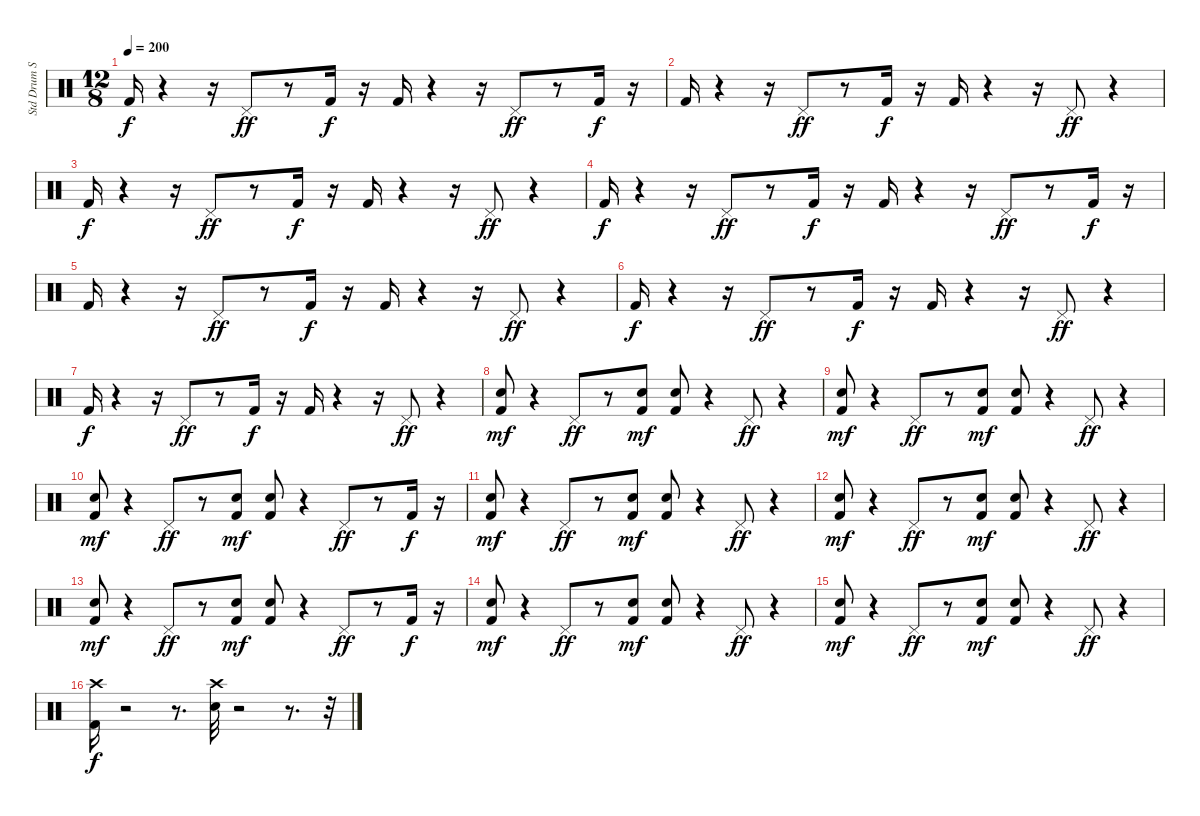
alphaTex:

\track ("Std Drum Set" "Std Drum S") {instrument percussion}
\staff {score}
\articulation defaults
\ts (12 8)
\tempo 200
\clef neutral
\ks c "Kick (hit) 2".16{dy f}
r.4 r.16 "Pedal Hi-Hat (hit)".8{dy ff} r.8 "Kick (hit) 2".16{dy f} r.16 "Kick (hit) 2".16 r.4 r.16 "Pedal Hi-Hat (hit)".8{dy ff} r.8 "Kick (hit) 2".16{dy f} r.16 |
"Kick (hit) 2".16 r.4 r.16 "Pedal Hi-Hat (hit)".8{dy ff} r.8 "Kick (hit) 2".16{dy f} r.16 "Kick (hit) 2".16 r.4 r.16 "Pedal Hi-Hat (hit)".8{dy ff} r.4 |
"Kick (hit) 2".16{dy f} r.4 r.16 "Pedal Hi-Hat (hit)".8{dy ff} r.8 "Kick (hit) 2".16{dy f} r.16 "Kick (hit) 2".16 r.4 r.16 "Pedal Hi-Hat (hit)".8{dy ff} r.4 |
"Kick (hit) 2".16{dy f} r.4 r.16 "Pedal Hi-Hat (hit)".8{dy ff} r.8 "Kick (hit) 2".16{dy f} r.16 "Kick (hit) 2".16 r.4 r.16 "Pedal Hi-Hat (hit)".8{dy ff} r.8 "Kick (hit) 2".16{dy f} r.16 |
"Kick (hit) 2".16 r.4 r.16 "Pedal Hi-Hat (hit)".8{dy ff} r.8 "Kick (hit) 2".16{dy f} r.16 "Kick (hit) 2".16 r.4 r.16 "Pedal Hi-Hat (hit)".8{dy ff} r.4 |
"Kick (hit) 2".16{dy f} r.4 r.16 "Pedal Hi-Hat (hit)".8{dy ff} r.8 "Kick (hit) 2".16{dy f} r.16 "Kick (hit) 2".16 r.4 r.16 "Pedal Hi-Hat (hit)".8{dy ff} r.4 |
"Kick (hit) 2".16{dy f} r.4 r.16 "Pedal Hi-Hat (hit)".8{dy ff} r.8 "Kick (hit) 2".16{dy f} r.16 "Kick (hit) 2".16 r.4 r.16 "Pedal Hi-Hat (hit)".8{dy ff} r.4 |
("Kick (hit) 2" "Hand Clap (hit)").8{dy mf} r.4 "Pedal Hi-Hat (hit)".8{dy ff} r.8 ("Kick (hit) 2" "Hand Clap (hit)").8{dy mf} ("Kick (hit) 2" "Hand Clap (hit)").8 r.4 "Pedal Hi-Hat (hit)".8{dy ff} r.4 |
("Kick (hit) 2" "Hand Clap (hit)").8{dy mf} r.4 "Pedal Hi-Hat (hit)".8{dy ff} r.8 ("Kick (hit) 2" "Hand Clap (hit)").8{dy mf} ("Kick (hit) 2" "Hand Clap (hit)").8 r.4 "Pedal Hi-Hat (hit)".8{dy ff} r.4 |
("Kick (hit) 2" "Hand Clap (hit)").8{dy mf} r.4 "Pedal Hi-Hat (hit)".8{dy ff} r.8 ("Kick (hit) 2" "Hand Clap (hit)").8{dy mf} ("Kick (hit) 2" "Hand Clap (hit)").8 r.4 "Pedal Hi-Hat (hit)".8{dy ff} r.8 "Kick (hit) 2".16{dy f} r.16 |
("Kick (hit) 2" "Hand Clap (hit)").8{dy mf} r.4 "Pedal Hi-Hat (hit)".8{dy ff} r.8 ("Kick (hit) 2" "Hand Clap (hit)").8{dy mf} ("Kick (hit) 2" "Hand Clap (hit)").8 r.4 "Pedal Hi-Hat (hit)".8{dy ff} r.4 |
("Kick (hit) 2" "Hand Clap (hit)").8{dy mf} r.4 "Pedal Hi-Hat (hit)".8{dy ff} r.8 ("Kick (hit) 2" "Hand Clap (hit)").8{dy mf} ("Kick (hit) 2" "Hand Clap (hit)").8 r.4 "Pedal Hi-Hat (hit)".8{dy ff} r.4 |
("Kick (hit) 2" "Hand Clap (hit)").8{dy mf} r.4 "Pedal Hi-Hat (hit)".8{dy ff} r.8 ("Kick (hit) 2" "Hand Clap (hit)").8{dy mf} ("Kick (hit) 2" "Hand Clap (hit)").8 r.4 "Pedal Hi-Hat (hit)".8{dy ff} r.8 "Kick (hit) 2".16{dy f} r.16 |
("Kick (hit) 2" "Hand Clap (hit)").8{dy mf} r.4 "Pedal Hi-Hat (hit)".8{dy ff} r.8 ("Kick (hit) 2" "Hand Clap (hit)").8{dy mf} ("Kick (hit) 2" "Hand Clap (hit)").8 r.4 "Pedal Hi-Hat (hit)".8{dy ff} r.4 |
("Kick (hit) 2" "Hand Clap (hit)").8{dy mf} r.4 "Pedal Hi-Hat (hit)".8{dy ff} r.8 ("Kick (hit) 2" "Hand Clap (hit)").8{dy mf} ("Kick (hit) 2" "Hand Clap (hit)").8 r.4 "Pedal Hi-Hat (hit)".8{dy ff} r.4 |
("Kick (hit) 2" "Crash high (hit)").16{dy f} r.2 r.8{d} ("Snare (hit) 2" "Crash high (hit)").32 r.2 r.8{d} r.32
